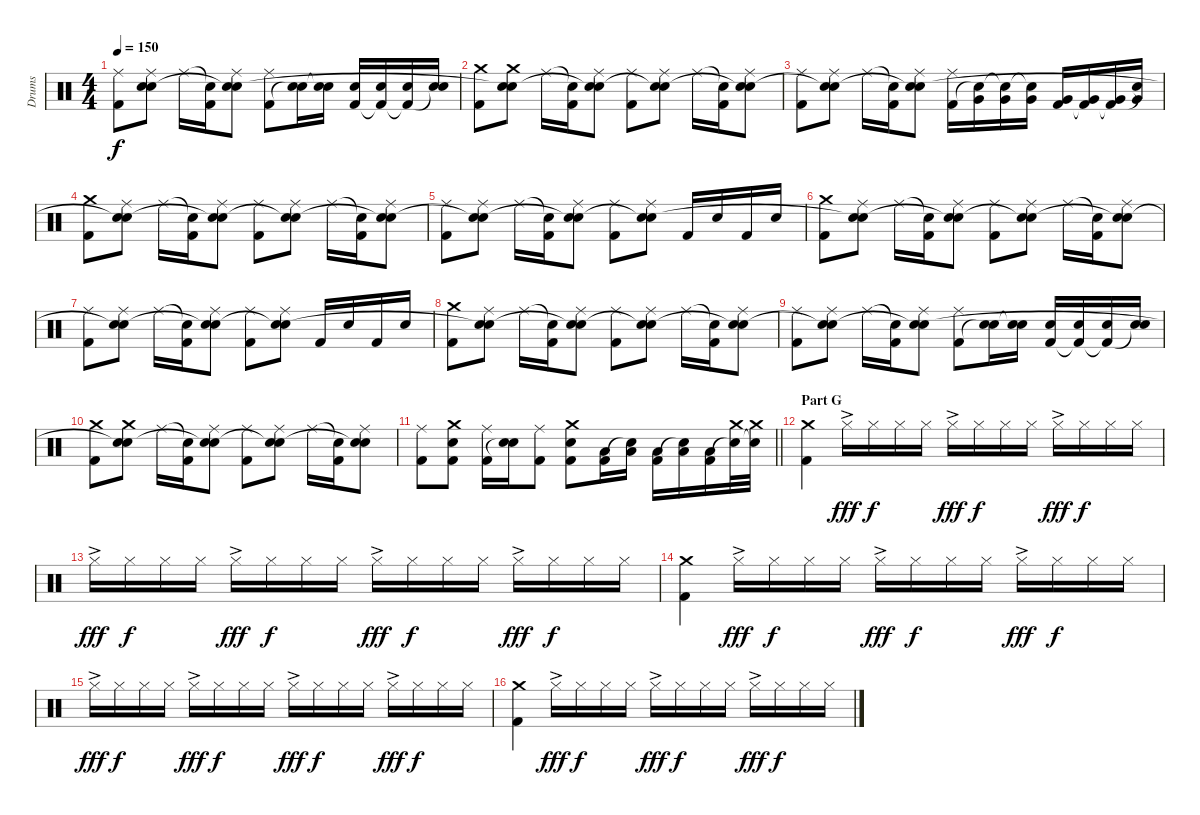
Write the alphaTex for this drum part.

\track ("Drums" "Drums") {instrument percussion}
\staff {score}
\articulation defaults
\ts (4 4)
\tempo 150
\clef neutral
\ks c
("Ride (middle)" "Kick (hit) 2").8{dy f} ("Ride (middle)" "Electric Snare (hit)" "Snare (hit)"{t}).8 "Ride (middle)".16 ("Snare (hit)"{t} "Kick (hit) 2").16 ("Ride (middle)" "Electric Snare (hit)" "Snare (hit)"{t}).8 ("Ride (middle)" "Kick (hit) 2").8 ("Electric Snare (hit)" "Snare (hit)"{t}).16 ("Electric Snare (hit)" "Snare (hit)"{t}).16 ("Electric Snare (hit)" "Kick (hit) 2").16 ("Electric Snare (hit)" "Kick (hit) 2"{t}).16 ("Electric Snare (hit)" "Kick (hit) 2"{t}).16 ("Electric Snare (hit)" "Snare (hit)"{t}).16 |
("Crash medium (hit)" "Kick (hit) 2").8 ("Crash medium (hit)" "Electric Snare (hit)" "Snare (hit)"{t}).8 "Ride (middle)".16 ("Snare (hit)"{t} "Kick (hit) 2").16 ("Ride (middle)" "Electric Snare (hit)" "Snare (hit)"{t}).8 ("Ride (middle)" "Kick (hit) 2").8 ("Ride (middle)" "Electric Snare (hit)" "Snare (hit)"{t}).8 "Ride (middle)".16 ("Snare (hit)"{t} "Kick (hit) 2").16 ("Ride (middle)" "Electric Snare (hit)" "Snare (hit)"{t}).8 |
("Ride (middle)" "Kick (hit) 2").8 ("Ride (middle)" "Electric Snare (hit)" "Snare (hit)"{t}).8 "Ride (middle)".16 ("Snare (hit)"{t} "Kick (hit) 2").16 ("Ride (middle)" "Electric Snare (hit)" "Snare (hit)"{t}).8 ("Ride (middle)" "Kick (hit) 2").16 ("Very Low Tom (hit)" "Snare (hit)"{t}).16 ("Very Low Tom (hit)" "Snare (hit)"{t}).16 ("Very Low Tom (hit)" "Snare (hit)"{t}).16 ("Very Low Tom (hit)" "Kick (hit) 2").16 ("Very Low Tom (hit)" "Kick (hit) 2"{t}).16 ("Very Low Tom (hit)" "Kick (hit) 2"{t}).16 ("Very Low Tom (hit)" "Snare (hit)"{t}).16 |
("Crash medium (hit)" "Kick (hit) 2").8 ("Ride (middle)" "Electric Snare (hit)" "Snare (hit)"{t}).8 "Ride (middle)".16 ("Snare (hit)"{t} "Kick (hit) 2").16 ("Ride (middle)" "Electric Snare (hit)" "Snare (hit)"{t}).8 ("Ride (middle)" "Kick (hit) 2").8 ("Ride (middle)" "Electric Snare (hit)" "Snare (hit)"{t}).8 "Ride (middle)".16 ("Snare (hit)"{t} "Kick (hit) 2").16 ("Ride (middle)" "Electric Snare (hit)" "Snare (hit)"{t}).8 |
("Ride (middle)" "Kick (hit) 2").8 ("Ride (middle)" "Electric Snare (hit)" "Snare (hit)"{t}).8 "Ride (middle)".16 ("Snare (hit)"{t} "Kick (hit) 2").16 ("Ride (middle)" "Electric Snare (hit)" "Snare (hit)"{t}).8 ("Ride (middle)" "Kick (hit) 2").8 ("Ride (middle)" "Electric Snare (hit)" "Snare (hit)"{t}).8 "Kick (hit) 2".16 "Electric Snare (hit)".16 "Kick (hit) 2".16 "Electric Snare (hit)".16 |
("Crash medium (hit)" "Kick (hit) 2").8 ("Ride (middle)" "Electric Snare (hit)" "Snare (hit)"{t}).8 "Ride (middle)".16 ("Snare (hit)"{t} "Kick (hit) 2").16 ("Ride (middle)" "Electric Snare (hit)" "Snare (hit)"{t}).8 ("Ride (middle)" "Kick (hit) 2").8 ("Ride (middle)" "Electric Snare (hit)" "Snare (hit)"{t}).8 "Ride (middle)".16 ("Snare (hit)"{t} "Kick (hit) 2").16 ("Ride (middle)" "Electric Snare (hit)" "Snare (hit)"{t}).8 |
("Ride (middle)" "Kick (hit) 2").8 ("Ride (middle)" "Electric Snare (hit)" "Snare (hit)"{t}).8 "Ride (middle)".16 ("Snare (hit)"{t} "Kick (hit) 2").16 ("Ride (middle)" "Electric Snare (hit)" "Snare (hit)"{t}).8 ("Ride (middle)" "Kick (hit) 2").8 ("Ride (middle)" "Electric Snare (hit)" "Snare (hit)"{t}).8 "Kick (hit) 2".16 "Electric Snare (hit)".16 "Kick (hit) 2".16 "Electric Snare (hit)".16 |
("Crash medium (hit)" "Kick (hit) 2").8 ("Ride (middle)" "Electric Snare (hit)" "Snare (hit)"{t}).8 "Ride (middle)".16 ("Snare (hit)"{t} "Kick (hit) 2").16 ("Ride (middle)" "Electric Snare (hit)" "Snare (hit)"{t}).8 ("Ride (middle)" "Kick (hit) 2").8 ("Ride (middle)" "Electric Snare (hit)" "Snare (hit)"{t}).8 "Ride (middle)".16 ("Snare (hit)"{t} "Kick (hit) 2").16 ("Ride (middle)" "Electric Snare (hit)" "Snare (hit)"{t}).8 |
("Ride (middle)" "Kick (hit) 2").8 ("Ride (middle)" "Electric Snare (hit)" "Snare (hit)"{t}).8 "Ride (middle)".16 ("Snare (hit)"{t} "Kick (hit) 2").16 ("Ride (middle)" "Electric Snare (hit)" "Snare (hit)"{t}).8 ("Ride (middle)" "Kick (hit) 2").8 ("Electric Snare (hit)" "Snare (hit)"{t}).16 ("Electric Snare (hit)" "Snare (hit)"{t}).16 ("Electric Snare (hit)" "Kick (hit) 2").16 ("Electric Snare (hit)" "Kick (hit) 2"{t}).16 ("Electric Snare (hit)" "Kick (hit) 2"{t}).16 ("Electric Snare (hit)" "Snare (hit)"{t}).16 |
("Crash medium (hit)" "Kick (hit) 2").8 ("Crash medium (hit)" "Electric Snare (hit)" "Snare (hit)"{t}).8 "Ride (middle)".16 ("Snare (hit)"{t} "Kick (hit) 2").16 ("Ride (middle)" "Electric Snare (hit)" "Snare (hit)"{t}).8 ("Ride (middle)" "Kick (hit) 2").8 ("Ride (middle)" "Electric Snare (hit)" "Snare (hit)"{t}).8 "Ride (middle)".16 ("Snare (hit)"{t} "Kick (hit) 2").16 ("Ride (middle)" "Electric Snare (hit)" "Snare (hit)"{t}).8 |
\barLineRight lightlight
("Ride (middle)" "Kick (hit) 2").8 ("Crash medium (hit)" "Electric Snare (hit)" "Kick (hit) 2").8 ("Ride (middle)" "Kick (hit) 2").16 ("Electric Snare (hit)" "Snare (hit)"{t}).16 ("Ride (middle)" "Kick (hit) 2").8 ("Crash medium (hit)" "Electric Snare (hit)" "Kick (hit) 2").8 ("Low Tom (hit)" "Kick (hit) 2").16 ("Low Tom (hit)" "Snare (hit)"{t}).16 ("Low Tom (hit)" "Kick (hit) 2").16 ("Low Tom (hit)" "Snare (hit)"{t}).16 ("Low Tom (hit)" "Kick (hit) 2").16 ("Crash medium (hit)" "Snare (hit)"{t}).32 ("Crash medium (hit)" "Snare (hit)"{t}).32 |
\section ("" "Part G")
("Crash medium (hit)" "Kick (hit) 2").4 "Hi-Hat (closed)"{ac}.16{dy fff} "Hi-Hat (closed)".16{dy f} "Hi-Hat (closed)".16 "Hi-Hat (closed)".16 "Hi-Hat (closed)"{ac}.16{dy fff} "Hi-Hat (closed)".16{dy f} "Hi-Hat (closed)".16 "Hi-Hat (closed)".16 "Hi-Hat (closed)"{ac}.16{dy fff} "Hi-Hat (closed)".16{dy f} "Hi-Hat (closed)".16 "Hi-Hat (closed)".16 |
"Hi-Hat (closed)"{ac}.16{dy fff} "Hi-Hat (closed)".16{dy f} "Hi-Hat (closed)".16 "Hi-Hat (closed)".16 "Hi-Hat (closed)"{ac}.16{dy fff} "Hi-Hat (closed)".16{dy f} "Hi-Hat (closed)".16 "Hi-Hat (closed)".16 "Hi-Hat (closed)"{ac}.16{dy fff} "Hi-Hat (closed)".16{dy f} "Hi-Hat (closed)".16 "Hi-Hat (closed)".16 "Hi-Hat (closed)"{ac}.16{dy fff} "Hi-Hat (closed)".16{dy f} "Hi-Hat (closed)".16 "Hi-Hat (closed)".16 |
("Crash medium (hit)" "Kick (hit) 2").4 "Hi-Hat (closed)"{ac}.16{dy fff} "Hi-Hat (closed)".16{dy f} "Hi-Hat (closed)".16 "Hi-Hat (closed)".16 "Hi-Hat (closed)"{ac}.16{dy fff} "Hi-Hat (closed)".16{dy f} "Hi-Hat (closed)".16 "Hi-Hat (closed)".16 "Hi-Hat (closed)"{ac}.16{dy fff} "Hi-Hat (closed)".16{dy f} "Hi-Hat (closed)".16 "Hi-Hat (closed)".16 |
"Hi-Hat (closed)"{ac}.16{dy fff} "Hi-Hat (closed)".16{dy f} "Hi-Hat (closed)".16 "Hi-Hat (closed)".16 "Hi-Hat (closed)"{ac}.16{dy fff} "Hi-Hat (closed)".16{dy f} "Hi-Hat (closed)".16 "Hi-Hat (closed)".16 "Hi-Hat (closed)"{ac}.16{dy fff} "Hi-Hat (closed)".16{dy f} "Hi-Hat (closed)".16 "Hi-Hat (closed)".16 "Hi-Hat (closed)"{ac}.16{dy fff} "Hi-Hat (closed)".16{dy f} "Hi-Hat (closed)".16 "Hi-Hat (closed)".16 |
("Crash medium (hit)" "Kick (hit) 2").4 "Hi-Hat (closed)"{ac}.16{dy fff} "Hi-Hat (closed)".16{dy f} "Hi-Hat (closed)".16 "Hi-Hat (closed)".16 "Hi-Hat (closed)"{ac}.16{dy fff} "Hi-Hat (closed)".16{dy f} "Hi-Hat (closed)".16 "Hi-Hat (closed)".16 "Hi-Hat (closed)"{ac}.16{dy fff} "Hi-Hat (closed)".16{dy f} "Hi-Hat (closed)".16 "Hi-Hat (closed)".16
